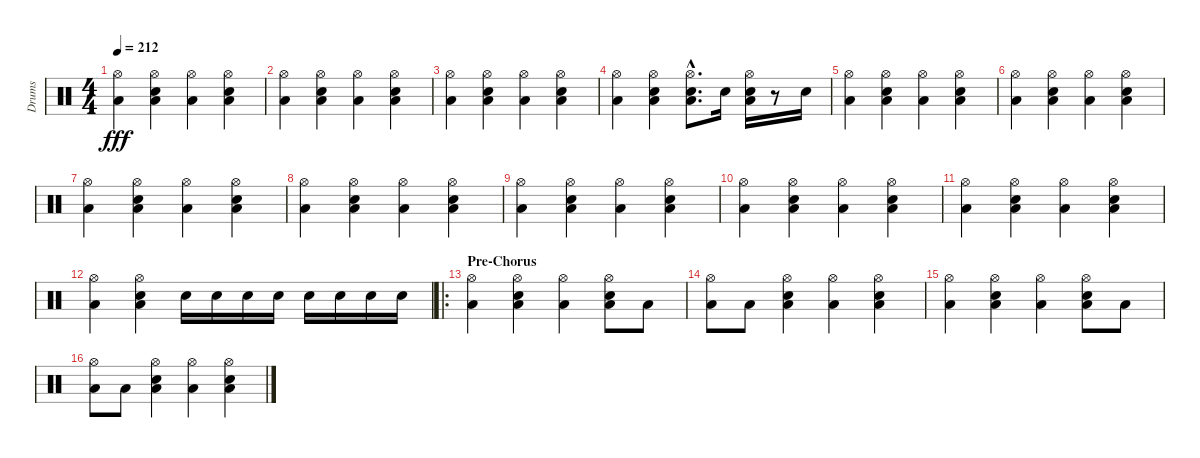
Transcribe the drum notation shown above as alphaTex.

\track ("Drums" "Drums") {instrument percussion}
\staff {score}
\articulation defaults
\ts (4 4)
\tempo 212
\clef neutral
\ks c
("Low Floor Tom (hit)" "Hi-Hat (open)").4{dy fff} ("Low Floor Tom (hit)" "Hi-Hat (open)" "Electric Snare (hit)").4 ("Low Floor Tom (hit)" "Hi-Hat (open)").4 ("Low Floor Tom (hit)" "Hi-Hat (open)" "Electric Snare (hit)").4 |
("Low Floor Tom (hit)" "Hi-Hat (open)").4 ("Low Floor Tom (hit)" "Hi-Hat (open)" "Electric Snare (hit)").4 ("Low Floor Tom (hit)" "Hi-Hat (open)").4 ("Low Floor Tom (hit)" "Hi-Hat (open)" "Electric Snare (hit)").4 |
("Low Floor Tom (hit)" "Hi-Hat (open)").4 ("Low Floor Tom (hit)" "Hi-Hat (open)" "Electric Snare (hit)").4 ("Low Floor Tom (hit)" "Hi-Hat (open)").4 ("Low Floor Tom (hit)" "Hi-Hat (open)" "Electric Snare (hit)").4 |
("Low Floor Tom (hit)" "Hi-Hat (open)").4 ("Low Floor Tom (hit)" "Hi-Hat (open)" "Electric Snare (hit)").4 ("Low Floor Tom (hit)"{hac} "Hi-Hat (open)"{hac} "Electric Snare (hit)"{hac}).8{d} "Electric Snare (hit)".16 ("Low Floor Tom (hit)" "Hi-Hat (open)" "Electric Snare (hit)").16 r.8 "Electric Snare (hit)".16 |
("Low Floor Tom (hit)" "Hi-Hat (open)").4 ("Low Floor Tom (hit)" "Hi-Hat (open)" "Electric Snare (hit)").4 ("Low Floor Tom (hit)" "Hi-Hat (open)").4 ("Low Floor Tom (hit)" "Hi-Hat (open)" "Electric Snare (hit)").4 |
("Low Floor Tom (hit)" "Hi-Hat (open)").4 ("Low Floor Tom (hit)" "Hi-Hat (open)" "Electric Snare (hit)").4 ("Low Floor Tom (hit)" "Hi-Hat (open)").4 ("Low Floor Tom (hit)" "Hi-Hat (open)" "Electric Snare (hit)").4 |
("Low Floor Tom (hit)" "Hi-Hat (open)").4 ("Low Floor Tom (hit)" "Hi-Hat (open)" "Electric Snare (hit)").4 ("Low Floor Tom (hit)" "Hi-Hat (open)").4 ("Low Floor Tom (hit)" "Hi-Hat (open)" "Electric Snare (hit)").4 |
("Low Floor Tom (hit)" "Hi-Hat (open)").4 ("Low Floor Tom (hit)" "Hi-Hat (open)" "Electric Snare (hit)").4 ("Low Floor Tom (hit)" "Hi-Hat (open)").4 ("Low Floor Tom (hit)" "Hi-Hat (open)" "Electric Snare (hit)").4 |
("Low Floor Tom (hit)" "Hi-Hat (open)").4 ("Low Floor Tom (hit)" "Hi-Hat (open)" "Electric Snare (hit)").4 ("Low Floor Tom (hit)" "Hi-Hat (open)").4 ("Low Floor Tom (hit)" "Hi-Hat (open)" "Electric Snare (hit)").4 |
("Low Floor Tom (hit)" "Hi-Hat (open)").4 ("Low Floor Tom (hit)" "Hi-Hat (open)" "Electric Snare (hit)").4 ("Low Floor Tom (hit)" "Hi-Hat (open)").4 ("Low Floor Tom (hit)" "Hi-Hat (open)" "Electric Snare (hit)").4 |
("Low Floor Tom (hit)" "Hi-Hat (open)").4 ("Low Floor Tom (hit)" "Hi-Hat (open)" "Electric Snare (hit)").4 ("Low Floor Tom (hit)" "Hi-Hat (open)").4 ("Low Floor Tom (hit)" "Hi-Hat (open)" "Electric Snare (hit)").4 |
("Low Floor Tom (hit)" "Hi-Hat (open)").4 ("Low Floor Tom (hit)" "Hi-Hat (open)" "Electric Snare (hit)").4 "Electric Snare (hit)".16 "Electric Snare (hit)".16 "Electric Snare (hit)".16 "Electric Snare (hit)".16 "Electric Snare (hit)".16 "Electric Snare (hit)".16 "Electric Snare (hit)".16 "Electric Snare (hit)".16 |
\ro
\section ("" "Pre-Chorus")
("Low Floor Tom (hit)" "Hi-Hat (open)").4 ("Low Floor Tom (hit)" "Hi-Hat (open)" "Electric Snare (hit)").4 ("Low Tom (hit)" "Hi-Hat (open)").4 ("Low Floor Tom (hit)" "Hi-Hat (open)" "Electric Snare (hit)").8 "Low Tom (hit)".8 |
("Low Floor Tom (hit)" "Hi-Hat (open)").8 "Low Tom (hit)".8 ("Low Floor Tom (hit)" "Hi-Hat (open)" "Electric Snare (hit)").4 ("Low Tom (hit)" "Hi-Hat (open)").4 ("Low Floor Tom (hit)" "Hi-Hat (open)" "Electric Snare (hit)").4 |
("Low Floor Tom (hit)" "Hi-Hat (open)").4 ("Low Floor Tom (hit)" "Hi-Hat (open)" "Electric Snare (hit)").4 ("Low Tom (hit)" "Hi-Hat (open)").4 ("Low Floor Tom (hit)" "Hi-Hat (open)" "Electric Snare (hit)").8 "Low Tom (hit)".8 |
("Low Floor Tom (hit)" "Hi-Hat (open)").8 "Low Tom (hit)".8 ("Low Floor Tom (hit)" "Hi-Hat (open)" "Electric Snare (hit)").4 ("Low Tom (hit)" "Hi-Hat (open)").4 ("Low Floor Tom (hit)" "Hi-Hat (open)" "Electric Snare (hit)").4
